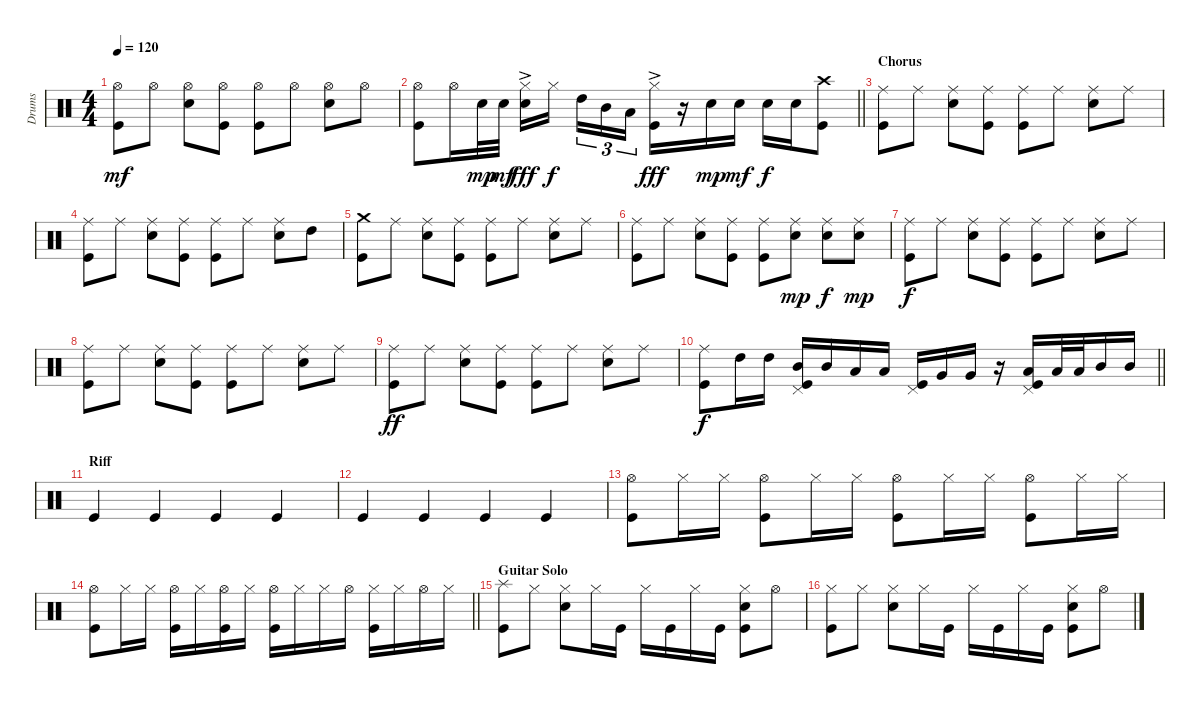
\track ("Drums" "Drums") {instrument percussion}
\staff {score}
\articulation defaults
\ts (4 4)
\tempo 120
\clef neutral
\ks c
("Hi-Hat (open)" "Kick (hit)").8{dy mf} "Hi-Hat (open)".8 ("Hi-Hat (open)" "Electric Snare (hit)").8 ("Hi-Hat (open)" "Kick (hit)").8 ("Hi-Hat (open)" "Kick (hit)").8 "Hi-Hat (open)".8 ("Hi-Hat (open)" "Electric Snare (hit)").8 "Hi-Hat (open)".8 |
\barLineRight lightlight
("Hi-Hat (open)" "Kick (hit)").8 "Hi-Hat (open)".16 "Electric Snare (hit)".32{dy mp} "Electric Snare (hit)".32{dy mf} ("Hi-Hat (closed)"{ac} "Electric Snare (hit)").16{dy fff} "Hi-Hat (closed)".16{dy f} "High Tom (hit)".16{tu (3 2)} "Mid Tom (hit)".16{tu (3 2)} "Low Tom (hit)".16{tu (3 2)} ("Hi-Hat (closed)"{ac} "Kick (hit)").16{dy fff} r.16 "Electric Snare (hit)".16{dy mp} "Electric Snare (hit)".16{dy mf} "Electric Snare (hit)".16{dy f} "Electric Snare (hit)".16 ("Crash high (hit)" "Kick (hit)").8 |
\section ("" "Chorus")
("Ride (middle)" "Kick (hit)").8 "Ride (middle)".8 ("Ride (middle)" "Electric Snare (hit)").8 ("Ride (middle)" "Kick (hit)").8 ("Ride (middle)" "Kick (hit)").8 "Ride (middle)".8 ("Ride (middle)" "Electric Snare (hit)").8 "Ride (middle)".8 |
("Ride (middle)" "Kick (hit)").8 "Ride (middle)".8 ("Ride (middle)" "Electric Snare (hit)").8 ("Ride (middle)" "Kick (hit)").8 ("Ride (middle)" "Kick (hit)").8 "Ride (middle)".8 ("Ride (middle)" "Electric Snare (hit)").8 "High Tom (hit)".8 |
("Crash medium (hit)" "Kick (hit)").8 "Ride (middle)".8 ("Ride (middle)" "Electric Snare (hit)").8 ("Ride (middle)" "Kick (hit)").8 ("Ride (middle)" "Kick (hit)").8 "Ride (middle)".8 ("Ride (middle)" "Electric Snare (hit)").8 "Ride (middle)".8 |
("Ride (middle)" "Kick (hit)").8 "Ride (middle)".8 ("Ride (middle)" "Electric Snare (hit)").8 ("Ride (middle)" "Kick (hit)").8 ("Ride (middle)" "Kick (hit)").8 ("Ride (middle)" "Electric Snare (hit)").8{dy mp} ("Ride (middle)" "Electric Snare (hit)").8{dy f} ("Ride (middle)" "Electric Snare (hit)").8{dy mp} |
("Ride (middle)" "Kick (hit)").8{dy f} "Ride (middle)".8 ("Ride (middle)" "Electric Snare (hit)").8 ("Ride (middle)" "Kick (hit)").8 ("Ride (middle)" "Kick (hit)").8 "Ride (middle)".8 ("Ride (middle)" "Electric Snare (hit)").8 "Ride (middle)".8 |
("Ride (middle)" "Kick (hit)").8 "Ride (middle)".8 ("Ride (middle)" "Electric Snare (hit)").8 ("Ride (middle)" "Kick (hit)").8 ("Ride (middle)" "Kick (hit)").8 "Ride (middle)".8 ("Ride (middle)" "Electric Snare (hit)").8 "Ride (middle)".8 |
("Ride (middle)" "Kick (hit)").8{dy ff} "Ride (middle)".8 ("Ride (middle)" "Electric Snare (hit)").8 ("Ride (middle)" "Kick (hit)").8 ("Ride (middle)" "Kick (hit)").8 "Ride (middle)".8 ("Ride (middle)" "Electric Snare (hit)").8 "Ride (middle)".8 |
\barLineRight lightlight
("Ride (middle)" "Kick (hit)").8{dy f} "High Tom (hit)".16 "High Tom (hit)".16 ("Pedal Hi-Hat (hit)" "Mid Tom (hit)" "Kick (hit)").16 "Mid Tom (hit)".16 "Low Tom (hit)".16 "Low Tom (hit)".16 ("Pedal Hi-Hat (hit)" "Kick (hit)").16 "Very Low Tom (hit)".16 "Very Low Tom (hit)".16 r.16 ("Pedal Hi-Hat (hit)" "Low Tom (hit)" "Kick (hit)").16 "Low Tom (hit)".32 "Low Tom (hit)".32 "Mid Tom (hit)".16 "Mid Tom (hit)".16 |
\section ("" "Riff")
"Kick (hit)".4 "Kick (hit)".4 "Kick (hit)".4 "Kick (hit)".4 |
"Kick (hit)".4 "Kick (hit)".4 "Kick (hit)".4 "Kick (hit)".4 |
("Hi-Hat (open)" "Kick (hit)").8 "Hi-Hat (closed)".16 "Hi-Hat (closed)".16 ("Hi-Hat (open)" "Kick (hit)").8 "Hi-Hat (closed)".16 "Hi-Hat (closed)".16 ("Hi-Hat (open)" "Kick (hit)").8 "Hi-Hat (closed)".16 "Hi-Hat (closed)".16 ("Hi-Hat (open)" "Kick (hit)").8 "Hi-Hat (closed)".16 "Hi-Hat (closed)".16 |
\barLineRight lightlight
("Hi-Hat (open)" "Kick (hit)").8 "Hi-Hat (closed)".16 "Hi-Hat (closed)".16 ("Hi-Hat (open)" "Kick (hit)").16 "Hi-Hat (closed)".16 ("Hi-Hat (open)" "Kick (hit)").16 "Hi-Hat (closed)".16 ("Hi-Hat (open)" "Kick (hit)").16 "Hi-Hat (closed)".16 "Hi-Hat (closed)".16 "Hi-Hat (open)".16 ("Hi-Hat (closed)" "Kick (hit)").16 "Hi-Hat (closed)".16 "Hi-Hat (open)".16 "Hi-Hat (closed)".16 |
\section ("" "Guitar Solo")
("Splash (hit)" "Kick (hit)").8 "Hi-Hat (closed)".8 ("Hi-Hat (closed)" "Electric Snare (hit)").8 "Hi-Hat (closed)".16 "Kick (hit)".16 "Hi-Hat (closed)".16 "Kick (hit)".16 "Hi-Hat (closed)".16 "Kick (hit)".16 ("Hi-Hat (closed)" "Electric Snare (hit)" "Kick (hit)").8 "Hi-Hat (open)".8 |
("Hi-Hat (closed)" "Kick (hit)").8 "Hi-Hat (closed)".8 ("Hi-Hat (closed)" "Electric Snare (hit)").8 "Hi-Hat (closed)".16 "Kick (hit)".16 "Hi-Hat (closed)".16 "Kick (hit)".16 "Hi-Hat (closed)".16 "Kick (hit)".16 ("Hi-Hat (closed)" "Electric Snare (hit)" "Kick (hit)").8 "Hi-Hat (open)".8
